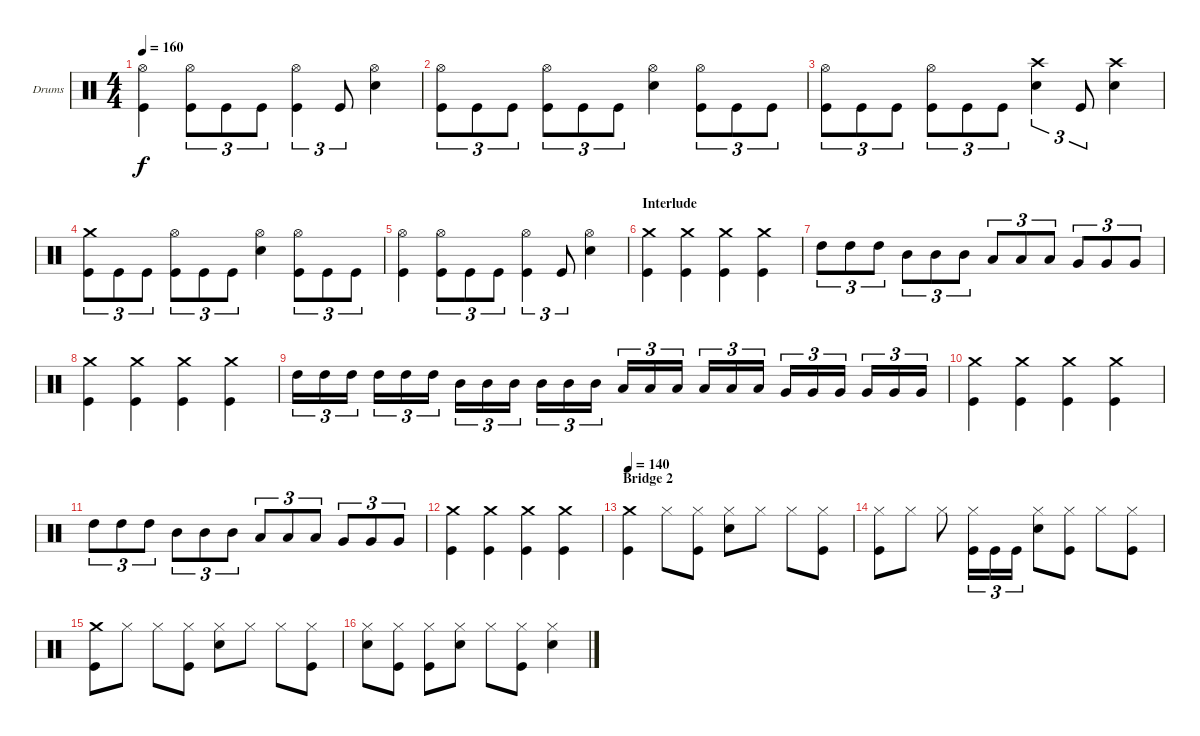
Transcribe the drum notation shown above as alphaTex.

\bracketExtendMode groupsimilarinstruments
\firstSystemTrackNameOrientation horizontal
\otherSystemsTrackNameOrientation horizontal
\track ("Drumkit" "Drums") {instrument percussion}
\staff {score}
\articulation defaults
\ts (4 4)
\tempo 160
\clef neutral
\ks c
("Kick (hit)" "Hi-Hat (open)").4{dy f} ("Hi-Hat (open)" "Kick (hit)").8{tu (3 2)} "Kick (hit)".8{tu (3 2)} "Kick (hit)".8{tu (3 2)} ("Hi-Hat (open)" "Kick (hit)").4{tu (3 2)} "Kick (hit)".8{tu (3 2)} ("Snare (hit) 2" "Hi-Hat (open)").4 |
("Kick (hit)" "Hi-Hat (open)").8{tu (3 2)} "Kick (hit)".8{tu (3 2)} "Kick (hit)".8{tu (3 2)} ("Kick (hit)" "Hi-Hat (open)").8{tu (3 2)} "Kick (hit)".8{tu (3 2)} "Kick (hit)".8{tu (3 2)} ("Snare (hit) 2" "Hi-Hat (open)").4 ("Kick (hit)" "Hi-Hat (open)").8{tu (3 2)} "Kick (hit)".8{tu (3 2)} "Kick (hit)".8{tu (3 2)} |
("Kick (hit)" "Hi-Hat (open)").8{tu (3 2)} "Kick (hit)".8{tu (3 2)} "Kick (hit)".8{tu (3 2)} ("Hi-Hat (open)" "Kick (hit)").8{tu (3 2)} "Kick (hit)".8{tu (3 2)} "Kick (hit)".8{tu (3 2)} ("Snare (hit) 2" "Crash high (hit)").4{tu (3 2)} "Kick (hit)".8{tu (3 2)} ("Snare (hit) 2" "Crash high (hit)").4 |
("Crash medium (hit)" "Kick (hit)").8{tu (3 2)} "Kick (hit)".8{tu (3 2)} "Kick (hit)".8{tu (3 2)} ("Kick (hit)" "Hi-Hat (open)").8{tu (3 2)} "Kick (hit)".8{tu (3 2)} "Kick (hit)".8{tu (3 2)} ("Snare (hit) 2" "Hi-Hat (open)").4 ("Kick (hit)" "Hi-Hat (open)").8{tu (3 2)} "Kick (hit)".8{tu (3 2)} "Kick (hit)".8{tu (3 2)} |
("Kick (hit)" "Hi-Hat (open)").4 ("Hi-Hat (open)" "Kick (hit)").8{tu (3 2)} "Kick (hit)".8{tu (3 2)} "Kick (hit)".8{tu (3 2)} ("Hi-Hat (open)" "Kick (hit)").4{tu (3 2)} "Kick (hit)".8{tu (3 2)} ("Snare (hit) 2" "Hi-Hat (open)").4 |
\section ("" "Interlude")
("Kick (hit)" "Crash medium (hit)").4 ("Kick (hit)" "Crash medium (hit)").4 ("Kick (hit)" "Crash medium (hit)").4 ("Kick (hit)" "Crash medium (hit)").4 |
"High Tom (hit)".8{tu (3 2)} "High Tom (hit)".8{tu (3 2)} "High Tom (hit)".8{tu (3 2)} "Mid Tom (hit)".8{tu (3 2)} "Mid Tom (hit)".8{tu (3 2)} "Mid Tom (hit)".8{tu (3 2)} "Low Tom (hit)".8{tu (3 2)} "Low Tom (hit)".8{tu (3 2)} "Low Tom (hit)".8{tu (3 2)} "Very Low Tom (hit)".8{tu (3 2)} "Very Low Tom (hit)".8{tu (3 2)} "Very Low Tom (hit)".8{tu (3 2)} |
("Kick (hit)" "Crash medium (hit)").4 ("Kick (hit)" "Crash medium (hit)").4 ("Kick (hit)" "Crash medium (hit)").4 ("Kick (hit)" "Crash medium (hit)").4 |
"High Tom (hit)".16{tu (3 2)} "High Tom (hit)".16{tu (3 2)} "High Tom (hit)".16{tu (3 2)} "High Tom (hit)".16{tu (3 2)} "High Tom (hit)".16{tu (3 2)} "High Tom (hit)".16{tu (3 2)} "Mid Tom (hit)".16{tu (3 2)} "Mid Tom (hit)".16{tu (3 2)} "Mid Tom (hit)".16{tu (3 2)} "Mid Tom (hit)".16{tu (3 2)} "Mid Tom (hit)".16{tu (3 2)} "Mid Tom (hit)".16{tu (3 2)} "Low Tom (hit)".16{tu (3 2)} "Low Tom (hit)".16{tu (3 2)} "Low Tom (hit)".16{tu (3 2)} "Low Tom (hit)".16{tu (3 2)} "Low Tom (hit)".16{tu (3 2)} "Low Tom (hit)".16{tu (3 2)} "Very Low Tom (hit)".16{tu (3 2)} "Very Low Tom (hit)".16{tu (3 2)} "Very Low Tom (hit)".16{tu (3 2)} "Very Low Tom (hit)".16{tu (3 2)} "Very Low Tom (hit)".16{tu (3 2)} "Very Low Tom (hit)".16{tu (3 2)} |
("Kick (hit)" "Crash medium (hit)").4 ("Kick (hit)" "Crash medium (hit)").4 ("Kick (hit)" "Crash medium (hit)").4 ("Kick (hit)" "Crash medium (hit)").4 |
"High Tom (hit)".8{tu (3 2)} "High Tom (hit)".8{tu (3 2)} "High Tom (hit)".8{tu (3 2)} "Mid Tom (hit)".8{tu (3 2)} "Mid Tom (hit)".8{tu (3 2)} "Mid Tom (hit)".8{tu (3 2)} "Low Tom (hit)".8{tu (3 2)} "Low Tom (hit)".8{tu (3 2)} "Low Tom (hit)".8{tu (3 2)} "Very Low Tom (hit)".8{tu (3 2)} "Very Low Tom (hit)".8{tu (3 2)} "Very Low Tom (hit)".8{tu (3 2)} |
("Kick (hit)" "Crash medium (hit)").4 ("Kick (hit)" "Crash medium (hit)").4 ("Kick (hit)" "Crash medium (hit)").4 ("Kick (hit)" "Crash medium (hit)").4 |
\section ("" "Bridge 2")
\tempo 140
("Kick (hit)" "Crash medium (hit)").4 "Hi-Hat (closed)".8 ("Kick (hit)" "Hi-Hat (closed)").8 ("Snare (hit) 2" "Hi-Hat (closed)").8 "Hi-Hat (closed)".8 "Hi-Hat (closed)".8 ("Kick (hit)" "Hi-Hat (closed)").8 |
("Kick (hit)" "Hi-Hat (closed)").8 "Hi-Hat (closed)".8 "Hi-Hat (closed)".8 ("Kick (hit)" "Hi-Hat (closed)").16{tu (3 2)} "Kick (hit)".16{tu (3 2)} "Kick (hit)".16{tu (3 2)} ("Snare (hit) 2" "Hi-Hat (closed)").8 ("Kick (hit)" "Hi-Hat (closed)").8 "Hi-Hat (closed)".8 ("Kick (hit)" "Hi-Hat (closed)").8 |
("Kick (hit)" "Crash medium (hit)").8 "Hi-Hat (closed)".8 "Hi-Hat (closed)".8 ("Kick (hit)" "Hi-Hat (closed)").8 ("Snare (hit) 2" "Hi-Hat (closed)").8 "Hi-Hat (closed)".8 "Hi-Hat (closed)".8 ("Kick (hit)" "Hi-Hat (closed)").8 |
("Snare (hit) 2" "Hi-Hat (closed)").8 ("Kick (hit)" "Hi-Hat (closed)").8 ("Kick (hit)" "Hi-Hat (closed)").8 ("Snare (hit) 2" "Hi-Hat (closed)").8 "Hi-Hat (closed)".8 ("Kick (hit)" "Hi-Hat (closed)").8 ("Snare (hit) 2" "Hi-Hat (closed)").4
